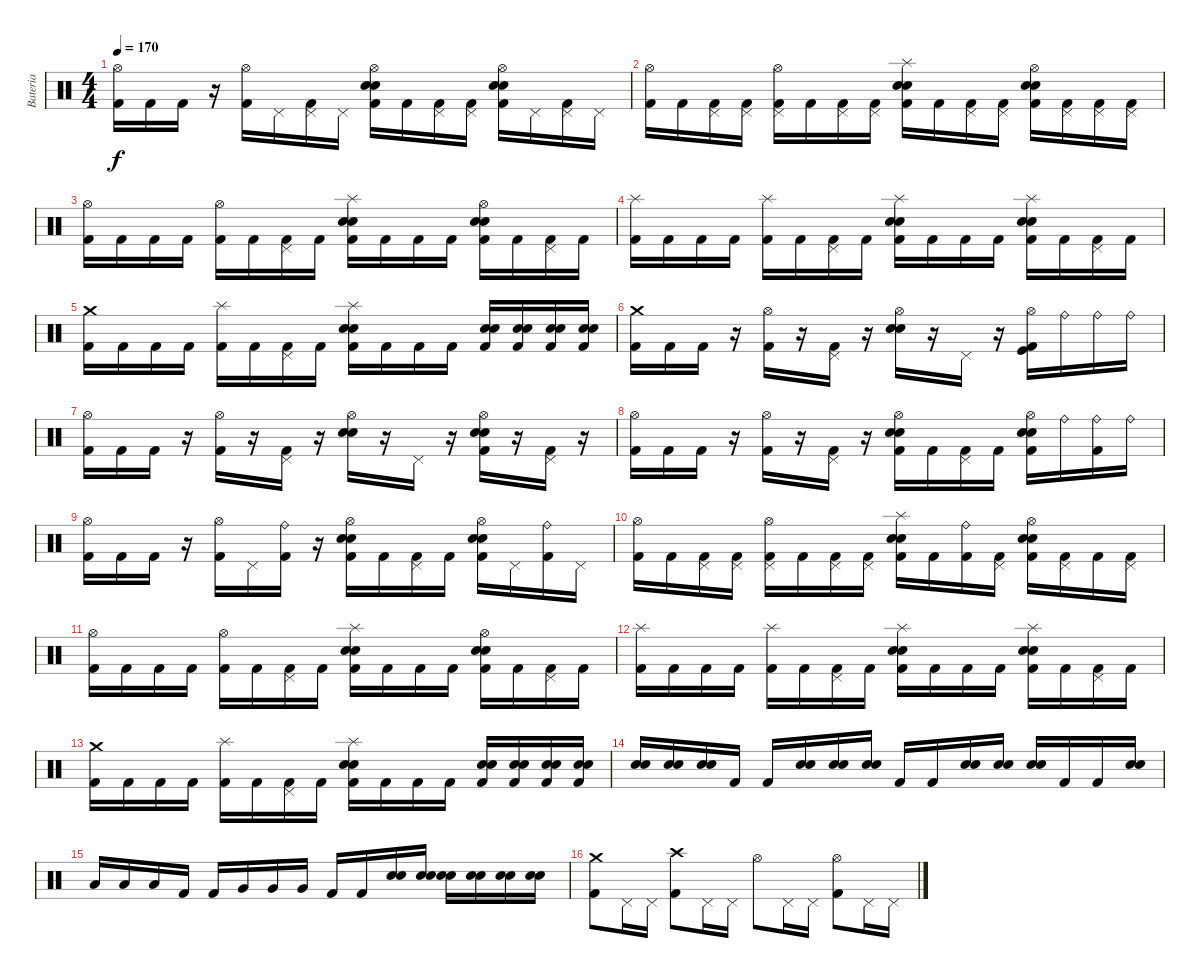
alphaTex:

\track ("Bateria" "Bateria") {instrument percussion}
\staff {score}
\articulation defaults
\ts (4 4)
\tempo 170
\clef neutral
\ks c
("Hi-Hat (open)" "Kick (hit) 2").16{dy f} "Kick (hit) 2".16 "Kick (hit) 2".16 r.16 ("Hi-Hat (open)" "Kick (hit) 2").16 "Pedal Hi-Hat (hit)".16 ("Pedal Hi-Hat (hit)" "Kick (hit) 2").16 "Pedal Hi-Hat (hit)".16 ("Hi-Hat (open)" "Electric Snare (hit)" "Snare (hit) 2" "Kick (hit) 2").16 "Kick (hit) 2".16 ("Pedal Hi-Hat (hit)" "Kick (hit) 2").16 ("Pedal Hi-Hat (hit)" "Kick (hit) 2").16 ("Hi-Hat (open)" "Electric Snare (hit)" "Snare (hit) 2" "Kick (hit) 2").16 "Pedal Hi-Hat (hit)".16 ("Pedal Hi-Hat (hit)" "Kick (hit) 2").16 "Pedal Hi-Hat (hit)".16 |
("Hi-Hat (open)" "Kick (hit) 2").16 "Kick (hit) 2".16 ("Pedal Hi-Hat (hit)" "Kick (hit) 2").16 ("Pedal Hi-Hat (hit)" "Kick (hit) 2").16 ("Hi-Hat (open)" "Pedal Hi-Hat (hit)" "Kick (hit) 2").16 "Kick (hit) 2".16 ("Pedal Hi-Hat (hit)" "Kick (hit) 2").16 ("Pedal Hi-Hat (hit)" "Kick (hit) 2").16 ("Splash (hit)" "Electric Snare (hit)" "Snare (hit) 2" "Kick (hit) 2").16 "Kick (hit) 2".16 ("Pedal Hi-Hat (hit)" "Kick (hit) 2").16 ("Pedal Hi-Hat (hit)" "Kick (hit) 2").16 ("Hi-Hat (open)" "Electric Snare (hit)" "Snare (hit) 2" "Kick (hit) 2").16 ("Pedal Hi-Hat (hit)" "Kick (hit) 2").16 ("Pedal Hi-Hat (hit)" "Kick (hit) 2").16 ("Pedal Hi-Hat (hit)" "Kick (hit) 2").16 |
("Hi-Hat (open)" "Kick (hit) 2").16 "Kick (hit) 2".16 "Kick (hit) 2".16 "Kick (hit) 2".16 ("Hi-Hat (open)" "Kick (hit) 2").16 "Kick (hit) 2".16 ("Pedal Hi-Hat (hit)" "Kick (hit) 2").16 "Kick (hit) 2".16 ("Splash (hit)" "Electric Snare (hit)" "Snare (hit) 2" "Kick (hit) 2").16 "Kick (hit) 2".16 "Kick (hit) 2".16 "Kick (hit) 2".16 ("Hi-Hat (open)" "Electric Snare (hit)" "Snare (hit) 2" "Kick (hit) 2").16 "Kick (hit) 2".16 ("Pedal Hi-Hat (hit)" "Kick (hit) 2").16 "Kick (hit) 2".16 |
("Splash (hit)" "Kick (hit) 2").16 "Kick (hit) 2".16 "Kick (hit) 2".16 "Kick (hit) 2".16 ("Splash (hit)" "Kick (hit) 2").16 "Kick (hit) 2".16 ("Pedal Hi-Hat (hit)" "Kick (hit) 2").16 "Kick (hit) 2".16 ("Splash (hit)" "Electric Snare (hit)" "Snare (hit) 2" "Kick (hit) 2").16 "Kick (hit) 2".16 "Kick (hit) 2".16 "Kick (hit) 2".16 ("Splash (hit)" "Electric Snare (hit)" "Snare (hit) 2" "Kick (hit) 2").16 "Kick (hit) 2".16 ("Pedal Hi-Hat (hit)" "Kick (hit) 2").16 "Kick (hit) 2".16 |
("Crash medium (hit)" "Kick (hit) 2").16 "Kick (hit) 2".16 "Kick (hit) 2".16 "Kick (hit) 2".16 ("Splash (hit)" "Kick (hit) 2").16 "Kick (hit) 2".16 ("Pedal Hi-Hat (hit)" "Kick (hit) 2").16 "Kick (hit) 2".16 ("Splash (hit)" "Electric Snare (hit)" "Snare (hit) 2" "Kick (hit) 2").16 "Kick (hit) 2".16 "Kick (hit) 2".16 "Kick (hit) 2".16 ("Electric Snare (hit)" "Snare (hit) 2" "Kick (hit) 2").16 ("Electric Snare (hit)" "Snare (hit) 2" "Kick (hit) 2").16 ("Electric Snare (hit)" "Snare (hit) 2" "Kick (hit) 2").16 ("Electric Snare (hit)" "Snare (hit) 2" "Kick (hit) 2").16 |
("Crash medium (hit)" "Kick (hit) 2").16 "Kick (hit) 2".16 "Kick (hit) 2".16 r.16 ("Hi-Hat (open)" "Kick (hit) 2").16 r.16 ("Pedal Hi-Hat (hit)" "Kick (hit) 2").16 r.16 ("Hi-Hat (open)" "Electric Snare (hit)" "Snare (hit) 2").16 r.16 "Pedal Hi-Hat (hit)".16 r.16 ("Hi-Hat (open)" "Kick (hit)" "Kick (hit) 2").16 "Ride (bell)".16 "Ride (bell)".16 "Ride (bell)".16 |
("Hi-Hat (open)" "Kick (hit) 2").16 "Kick (hit) 2".16 "Kick (hit) 2".16 r.16 ("Hi-Hat (open)" "Kick (hit) 2").16 r.16 ("Pedal Hi-Hat (hit)" "Kick (hit) 2").16 r.16 ("Hi-Hat (open)" "Electric Snare (hit)" "Snare (hit) 2").16 r.16 "Pedal Hi-Hat (hit)".16 r.16 ("Hi-Hat (open)" "Electric Snare (hit)" "Snare (hit) 2" "Kick (hit) 2").16 r.16 ("Pedal Hi-Hat (hit)" "Kick (hit) 2").16 r.16 |
("Hi-Hat (open)" "Kick (hit) 2").16 "Kick (hit) 2".16 "Kick (hit) 2".16 r.16 ("Hi-Hat (open)" "Kick (hit) 2").16 r.16 ("Pedal Hi-Hat (hit)" "Kick (hit) 2").16 r.16 ("Hi-Hat (open)" "Electric Snare (hit)" "Snare (hit) 2" "Kick (hit) 2").16 "Kick (hit) 2".16 ("Pedal Hi-Hat (hit)" "Kick (hit) 2").16 "Kick (hit) 2".16 ("Hi-Hat (open)" "Electric Snare (hit)" "Snare (hit) 2" "Kick (hit) 2").16 "Ride (bell)".16 ("Ride (bell)" "Kick (hit) 2").16 "Ride (bell)".16 |
("Hi-Hat (open)" "Kick (hit) 2").16 "Kick (hit) 2".16 "Kick (hit) 2".16 r.16 ("Hi-Hat (open)" "Kick (hit) 2").16 "Pedal Hi-Hat (hit)".16 ("Ride (bell)" "Kick (hit) 2").16 r.16 ("Hi-Hat (open)" "Electric Snare (hit)" "Snare (hit) 2" "Kick (hit) 2").16 "Kick (hit) 2".16 ("Pedal Hi-Hat (hit)" "Kick (hit) 2").16 "Kick (hit) 2".16 ("Hi-Hat (open)" "Electric Snare (hit)" "Snare (hit) 2" "Kick (hit) 2").16 "Pedal Hi-Hat (hit)".16 ("Ride (bell)" "Kick (hit) 2").16 "Pedal Hi-Hat (hit)".16 |
("Hi-Hat (open)" "Kick (hit) 2").16 "Kick (hit) 2".16 ("Pedal Hi-Hat (hit)" "Kick (hit) 2").16 ("Pedal Hi-Hat (hit)" "Kick (hit) 2").16 ("Hi-Hat (open)" "Pedal Hi-Hat (hit)" "Kick (hit) 2").16 "Kick (hit) 2".16 ("Pedal Hi-Hat (hit)" "Kick (hit) 2").16 ("Pedal Hi-Hat (hit)" "Kick (hit) 2").16 ("Splash (hit)" "Electric Snare (hit)" "Snare (hit) 2" "Kick (hit) 2").16 "Kick (hit) 2".16 ("Ride (bell)" "Kick (hit) 2").16 ("Pedal Hi-Hat (hit)" "Kick (hit) 2").16 ("Hi-Hat (open)" "Electric Snare (hit)" "Snare (hit) 2" "Kick (hit) 2").16 ("Pedal Hi-Hat (hit)" "Kick (hit) 2").16 "Kick (hit) 2".16 ("Pedal Hi-Hat (hit)" "Kick (hit) 2").16 |
("Hi-Hat (open)" "Kick (hit) 2").16 "Kick (hit) 2".16 "Kick (hit) 2".16 "Kick (hit) 2".16 ("Hi-Hat (open)" "Kick (hit) 2").16 "Kick (hit) 2".16 ("Pedal Hi-Hat (hit)" "Kick (hit) 2").16 "Kick (hit) 2".16 ("Splash (hit)" "Electric Snare (hit)" "Snare (hit) 2" "Kick (hit) 2").16 "Kick (hit) 2".16 "Kick (hit) 2".16 "Kick (hit) 2".16 ("Hi-Hat (open)" "Electric Snare (hit)" "Snare (hit) 2" "Kick (hit) 2").16 "Kick (hit) 2".16 ("Pedal Hi-Hat (hit)" "Kick (hit) 2").16 "Kick (hit) 2".16 |
("Splash (hit)" "Kick (hit) 2").16 "Kick (hit) 2".16 "Kick (hit) 2".16 "Kick (hit) 2".16 ("Splash (hit)" "Kick (hit) 2").16 "Kick (hit) 2".16 ("Pedal Hi-Hat (hit)" "Kick (hit) 2").16 "Kick (hit) 2".16 ("Splash (hit)" "Electric Snare (hit)" "Snare (hit) 2" "Kick (hit) 2").16 "Kick (hit) 2".16 "Kick (hit) 2".16 "Kick (hit) 2".16 ("Splash (hit)" "Electric Snare (hit)" "Snare (hit) 2" "Kick (hit) 2").16 "Kick (hit) 2".16 ("Pedal Hi-Hat (hit)" "Kick (hit) 2").16 "Kick (hit) 2".16 |
("Crash medium (hit)" "Kick (hit) 2").16 "Kick (hit) 2".16 "Kick (hit) 2".16 "Kick (hit) 2".16 ("Splash (hit)" "Kick (hit) 2").16 "Kick (hit) 2".16 ("Pedal Hi-Hat (hit)" "Kick (hit) 2").16 "Kick (hit) 2".16 ("Splash (hit)" "Electric Snare (hit)" "Snare (hit) 2" "Kick (hit) 2").16 "Kick (hit) 2".16 "Kick (hit) 2".16 "Kick (hit) 2".16 ("Electric Snare (hit)" "Snare (hit) 2" "Kick (hit) 2").16 ("Electric Snare (hit)" "Snare (hit) 2" "Kick (hit) 2").16 ("Electric Snare (hit)" "Snare (hit) 2" "Kick (hit) 2").16 ("Electric Snare (hit)" "Snare (hit) 2" "Kick (hit) 2").16 |
("Electric Snare (hit)" "Snare (hit) 2").16 ("Electric Snare (hit)" "Snare (hit) 2").16 ("Electric Snare (hit)" "Snare (hit) 2").16 "Kick (hit) 2".16 "Kick (hit) 2".16 ("Electric Snare (hit)" "Snare (hit) 2").16 ("Electric Snare (hit)" "Snare (hit) 2").16 ("Electric Snare (hit)" "Snare (hit) 2").16 "Kick (hit) 2".16 "Kick (hit) 2".16 ("Electric Snare (hit)" "Snare (hit) 2").16 ("Electric Snare (hit)" "Snare (hit) 2").16 ("Electric Snare (hit)" "Snare (hit) 2").16 "Kick (hit) 2".16 "Kick (hit) 2".16 ("Electric Snare (hit)" "Snare (hit) 2").16 |
"Low Tom (hit)".16 "Low Tom (hit)".16 "Low Tom (hit)".16 "Kick (hit) 2".16 "Kick (hit) 2".16 "Very Low Tom (hit)".16 "Very Low Tom (hit)".16 "Very Low Tom (hit)".16 "Kick (hit) 2".16 "Kick (hit) 2".16 ("Electric Snare (hit)" "Snare (hit) 2").16 ("Electric Snare (hit)" "Snare (hit) 2").16 ("Electric Snare (hit)" "Snare (hit) 2").16 ("Electric Snare (hit)" "Snare (hit) 2").16 ("Electric Snare (hit)" "Snare (hit) 2").16 ("Electric Snare (hit)" "Snare (hit) 2").16 |
("Crash medium (hit)" "Kick (hit) 2").8 "Pedal Hi-Hat (hit)".16 "Pedal Hi-Hat (hit)".16 ("Crash high (hit)" "Kick (hit) 2").8 "Pedal Hi-Hat (hit)".16 "Pedal Hi-Hat (hit)".16 "Hi-Hat (open)".8 "Pedal Hi-Hat (hit)".16 "Pedal Hi-Hat (hit)".16 ("Hi-Hat (open)" "Kick (hit) 2").8 "Pedal Hi-Hat (hit)".16 "Pedal Hi-Hat (hit)".16
